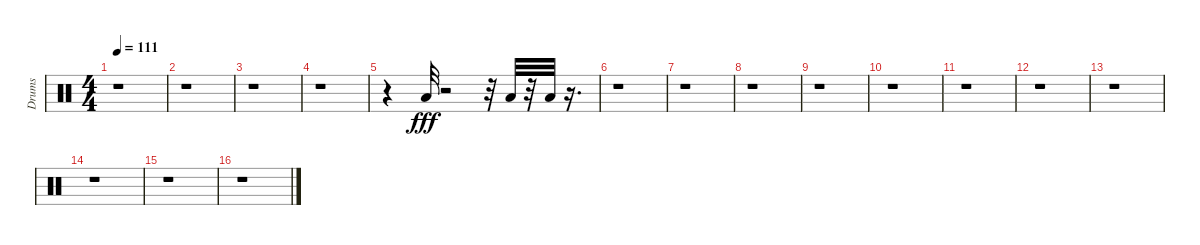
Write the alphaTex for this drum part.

\track ("Drums" "Drums") {instrument percussion}
\staff {score}
\articulation defaults
\ts (4 4)
\tempo 111
\clef neutral
\ks c
r.1{dy fff} |
r.1 |
r.1 |
r.1 |
r.4 "Low Tom (hit)".32 r.2 r.32 "Low Tom (hit)".32 r.32 "Low Tom (hit)".32 r.16{d} |
r.1 |
r.1 |
r.1 |
r.1 |
r.1 |
r.1 |
r.1 |
r.1 |
r.1 |
r.1 |
r.1
